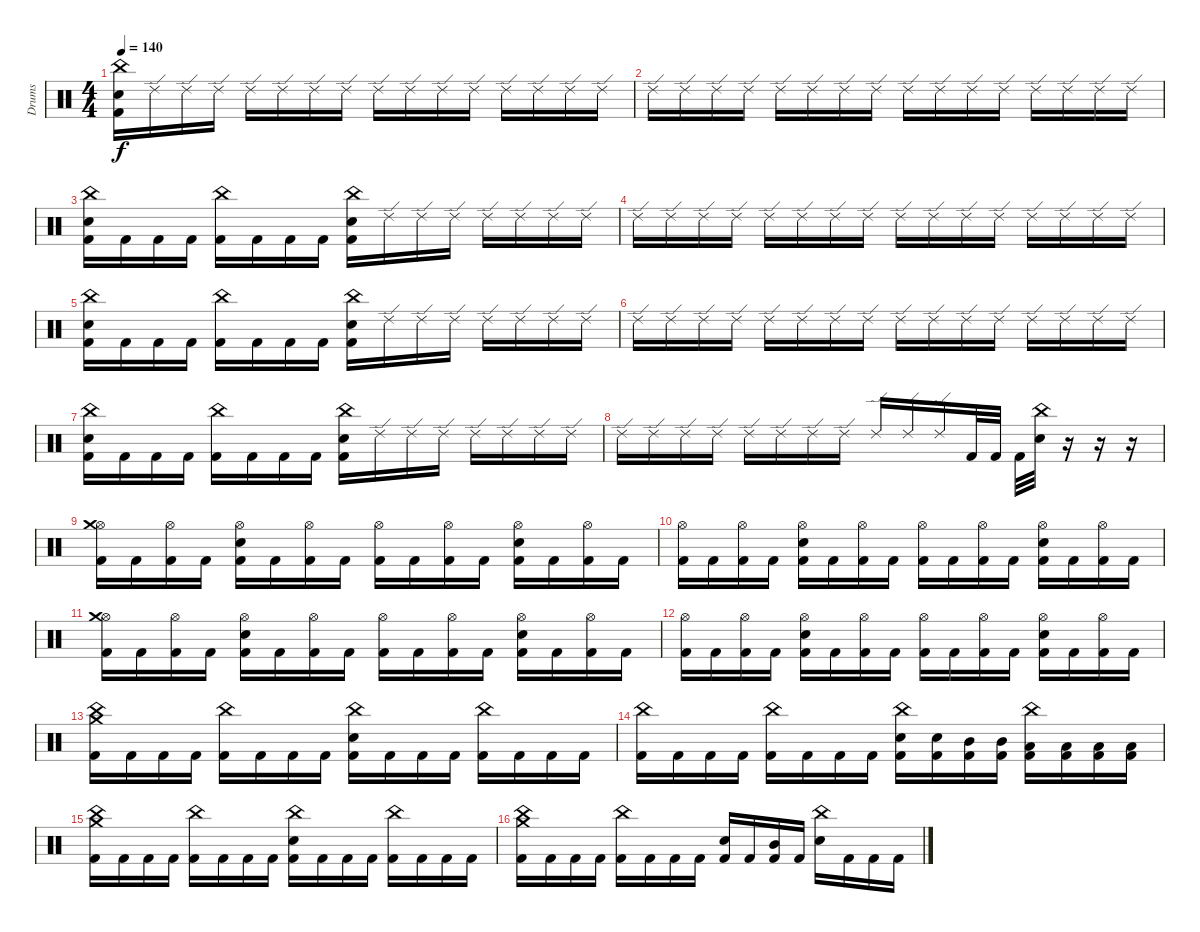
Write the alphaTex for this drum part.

\track ("Drums" "Drums") {instrument percussion}
\staff {score}
\articulation defaults
\ts (4 4)
\tempo 140
\clef neutral
\ks c
("China (hit)" "Electric Snare (hit)" "Kick (hit) 2").16{dy f} "Ride (edge) 2".16 "Ride (edge) 2".16 "Ride (edge) 2".16 "Ride (edge) 2".16 "Ride (edge) 2".16 "Ride (edge) 2".16 "Ride (edge) 2".16 "Ride (edge) 2".16 "Ride (edge) 2".16 "Ride (edge) 2".16 "Ride (edge) 2".16 "Ride (edge) 2".16 "Ride (edge) 2".16 "Ride (edge) 2".16 "Ride (edge) 2".16 |
"Ride (edge) 2".16 "Ride (edge) 2".16 "Ride (edge) 2".16 "Ride (edge) 2".16 "Ride (edge) 2".16 "Ride (edge) 2".16 "Ride (edge) 2".16 "Ride (edge) 2".16 "Ride (edge) 2".16 "Ride (edge) 2".16 "Ride (edge) 2".16 "Ride (edge) 2".16 "Ride (edge) 2".16 "Ride (edge) 2".16 "Ride (edge) 2".16 "Ride (edge) 2".16 |
("China (hit)" "Electric Snare (hit)" "Kick (hit) 2").16 "Kick (hit) 2".16 "Kick (hit) 2".16 "Kick (hit) 2".16 ("China (hit)" "Kick (hit) 2").16 "Kick (hit) 2".16 "Kick (hit) 2".16 "Kick (hit) 2".16 ("China (hit)" "Electric Snare (hit)" "Kick (hit) 2").16 "Ride (edge) 2".16 "Ride (edge) 2".16 "Ride (edge) 2".16 "Ride (edge) 2".16 "Ride (edge) 2".16 "Ride (edge) 2".16 "Ride (edge) 2".16 |
"Ride (edge) 2".16 "Ride (edge) 2".16 "Ride (edge) 2".16 "Ride (edge) 2".16 "Ride (edge) 2".16 "Ride (edge) 2".16 "Ride (edge) 2".16 "Ride (edge) 2".16 "Ride (edge) 2".16 "Ride (edge) 2".16 "Ride (edge) 2".16 "Ride (edge) 2".16 "Ride (edge) 2".16 "Ride (edge) 2".16 "Ride (edge) 2".16 "Ride (edge) 2".16 |
("China (hit)" "Electric Snare (hit)" "Kick (hit) 2").16 "Kick (hit) 2".16 "Kick (hit) 2".16 "Kick (hit) 2".16 ("China (hit)" "Kick (hit) 2").16 "Kick (hit) 2".16 "Kick (hit) 2".16 "Kick (hit) 2".16 ("China (hit)" "Electric Snare (hit)" "Kick (hit) 2").16 "Ride (edge) 2".16 "Ride (edge) 2".16 "Ride (edge) 2".16 "Ride (edge) 2".16 "Ride (edge) 2".16 "Ride (edge) 2".16 "Ride (edge) 2".16 |
"Ride (edge) 2".16 "Ride (edge) 2".16 "Ride (edge) 2".16 "Ride (edge) 2".16 "Ride (edge) 2".16 "Ride (edge) 2".16 "Ride (edge) 2".16 "Ride (edge) 2".16 "Ride (edge) 2".16 "Ride (edge) 2".16 "Ride (edge) 2".16 "Ride (edge) 2".16 "Ride (edge) 2".16 "Ride (edge) 2".16 "Ride (edge) 2".16 "Ride (edge) 2".16 |
("China (hit)" "Electric Snare (hit)" "Kick (hit) 2").16 "Kick (hit) 2".16 "Kick (hit) 2".16 "Kick (hit) 2".16 ("China (hit)" "Kick (hit) 2").16 "Kick (hit) 2".16 "Kick (hit) 2".16 "Kick (hit) 2".16 ("China (hit)" "Electric Snare (hit)" "Kick (hit) 2").16 "Ride (edge) 2".16 "Ride (edge) 2".16 "Ride (edge) 2".16 "Ride (edge) 2".16 "Ride (edge) 2".16 "Ride (edge) 2".16 "Ride (edge) 2".16 |
"Ride (edge) 2".16 "Ride (edge) 2".16 "Ride (edge) 2".16 "Ride (edge) 2".16 "Ride (edge) 2".16 "Ride (edge) 2".16 "Ride (edge) 2".16 "Ride (edge) 2".16 "Ride (edge) 2".16 "Ride (edge) 2".16 "Ride (edge) 2".16 "Kick (hit) 2".32 "Kick (hit) 2".32 "Kick (hit) 2".32 ("China (hit)" "Electric Snare (hit)").32 r.16 r.16 r.16 |
("Hi-Hat (open)" "Crash medium (hit)" "Kick (hit) 2").16 "Kick (hit) 2".16 ("Hi-Hat (open)" "Kick (hit) 2").16 "Kick (hit) 2".16 ("Hi-Hat (open)" "Electric Snare (hit)" "Kick (hit) 2").16 "Kick (hit) 2".16 ("Hi-Hat (open)" "Kick (hit) 2").16 "Kick (hit) 2".16 ("Hi-Hat (open)" "Kick (hit) 2").16 "Kick (hit) 2".16 ("Hi-Hat (open)" "Kick (hit) 2").16 "Kick (hit) 2".16 ("Hi-Hat (open)" "Electric Snare (hit)" "Kick (hit) 2").16 "Kick (hit) 2".16 ("Hi-Hat (open)" "Kick (hit) 2").16 "Kick (hit) 2".16 |
("Hi-Hat (open)" "Kick (hit) 2").16 "Kick (hit) 2".16 ("Hi-Hat (open)" "Kick (hit) 2").16 "Kick (hit) 2".16 ("Hi-Hat (open)" "Electric Snare (hit)" "Kick (hit) 2").16 "Kick (hit) 2".16 ("Hi-Hat (open)" "Kick (hit) 2").16 "Kick (hit) 2".16 ("Hi-Hat (open)" "Kick (hit) 2").16 "Kick (hit) 2".16 ("Hi-Hat (open)" "Kick (hit) 2").16 "Kick (hit) 2".16 ("Hi-Hat (open)" "Electric Snare (hit)" "Kick (hit) 2").16 "Kick (hit) 2".16 ("Hi-Hat (open)" "Kick (hit) 2").16 "Kick (hit) 2".16 |
("Hi-Hat (open)" "Crash medium (hit)" "Kick (hit) 2").16 "Kick (hit) 2".16 ("Hi-Hat (open)" "Kick (hit) 2").16 "Kick (hit) 2".16 ("Hi-Hat (open)" "Electric Snare (hit)" "Kick (hit) 2").16 "Kick (hit) 2".16 ("Hi-Hat (open)" "Kick (hit) 2").16 "Kick (hit) 2".16 ("Hi-Hat (open)" "Kick (hit) 2").16 "Kick (hit) 2".16 ("Hi-Hat (open)" "Kick (hit) 2").16 "Kick (hit) 2".16 ("Hi-Hat (open)" "Electric Snare (hit)" "Kick (hit) 2").16 "Kick (hit) 2".16 ("Hi-Hat (open)" "Kick (hit) 2").16 "Kick (hit) 2".16 |
("Hi-Hat (open)" "Kick (hit) 2").16 "Kick (hit) 2".16 ("Hi-Hat (open)" "Kick (hit) 2").16 "Kick (hit) 2".16 ("Hi-Hat (open)" "Electric Snare (hit)" "Kick (hit) 2").16 "Kick (hit) 2".16 ("Hi-Hat (open)" "Kick (hit) 2").16 "Kick (hit) 2".16 ("Hi-Hat (open)" "Kick (hit) 2").16 "Kick (hit) 2".16 ("Hi-Hat (open)" "Kick (hit) 2").16 "Kick (hit) 2".16 ("Hi-Hat (open)" "Electric Snare (hit)" "Kick (hit) 2").16 "Kick (hit) 2".16 ("Hi-Hat (open)" "Kick (hit) 2").16 "Kick (hit) 2".16 |
("China (hit)" "Crash medium (hit)" "Kick (hit) 2").16 "Kick (hit) 2".16 "Kick (hit) 2".16 "Kick (hit) 2".16 ("China (hit)" "Kick (hit) 2").16 "Kick (hit) 2".16 "Kick (hit) 2".16 "Kick (hit) 2".16 ("China (hit)" "Electric Snare (hit)" "Kick (hit) 2").16 "Kick (hit) 2".16 "Kick (hit) 2".16 "Kick (hit) 2".16 ("China (hit)" "Kick (hit) 2").16 "Kick (hit) 2".16 "Kick (hit) 2".16 "Kick (hit) 2".16 |
("China (hit)" "Kick (hit) 2").16 "Kick (hit) 2".16 "Kick (hit) 2".16 "Kick (hit) 2".16 ("China (hit)" "Kick (hit) 2").16 "Kick (hit) 2".16 "Kick (hit) 2".16 "Kick (hit) 2".16 ("China (hit)" "Electric Snare (hit)" "Kick (hit) 2").16 ("Electric Snare (hit)" "Kick (hit) 2").16 ("Mid Tom (hit)" "Kick (hit) 2").16 ("Mid Tom (hit)" "Kick (hit) 2").16 ("China (hit)" "Low Tom (hit)" "Kick (hit) 2").16 ("Low Tom (hit)" "Kick (hit) 2").16 ("Low Tom (hit)" "Kick (hit) 2").16 ("Low Tom (hit)" "Kick (hit) 2").16 |
("China (hit)" "Crash medium (hit)" "Kick (hit) 2").16 "Kick (hit) 2".16 "Kick (hit) 2".16 "Kick (hit) 2".16 ("China (hit)" "Kick (hit) 2").16 "Kick (hit) 2".16 "Kick (hit) 2".16 "Kick (hit) 2".16 ("China (hit)" "Electric Snare (hit)" "Kick (hit) 2").16 "Kick (hit) 2".16 "Kick (hit) 2".16 "Kick (hit) 2".16 ("China (hit)" "Kick (hit) 2").16 "Kick (hit) 2".16 "Kick (hit) 2".16 "Kick (hit) 2".16 |
("China (hit)" "Crash medium (hit)" "Kick (hit) 2").16 "Kick (hit) 2".16 "Kick (hit) 2".16 "Kick (hit) 2".16 ("China (hit)" "Kick (hit) 2").16 "Kick (hit) 2".16 "Kick (hit) 2".16 "Kick (hit) 2".16 ("Electric Snare (hit)" "Kick (hit) 2").16 "Kick (hit) 2".16 ("Mid Tom (hit)" "Kick (hit) 2").16 "Kick (hit) 2".16 ("China (hit)" "Electric Snare (hit)").16 "Kick (hit) 2".16 "Kick (hit) 2".16 "Kick (hit) 2".16
